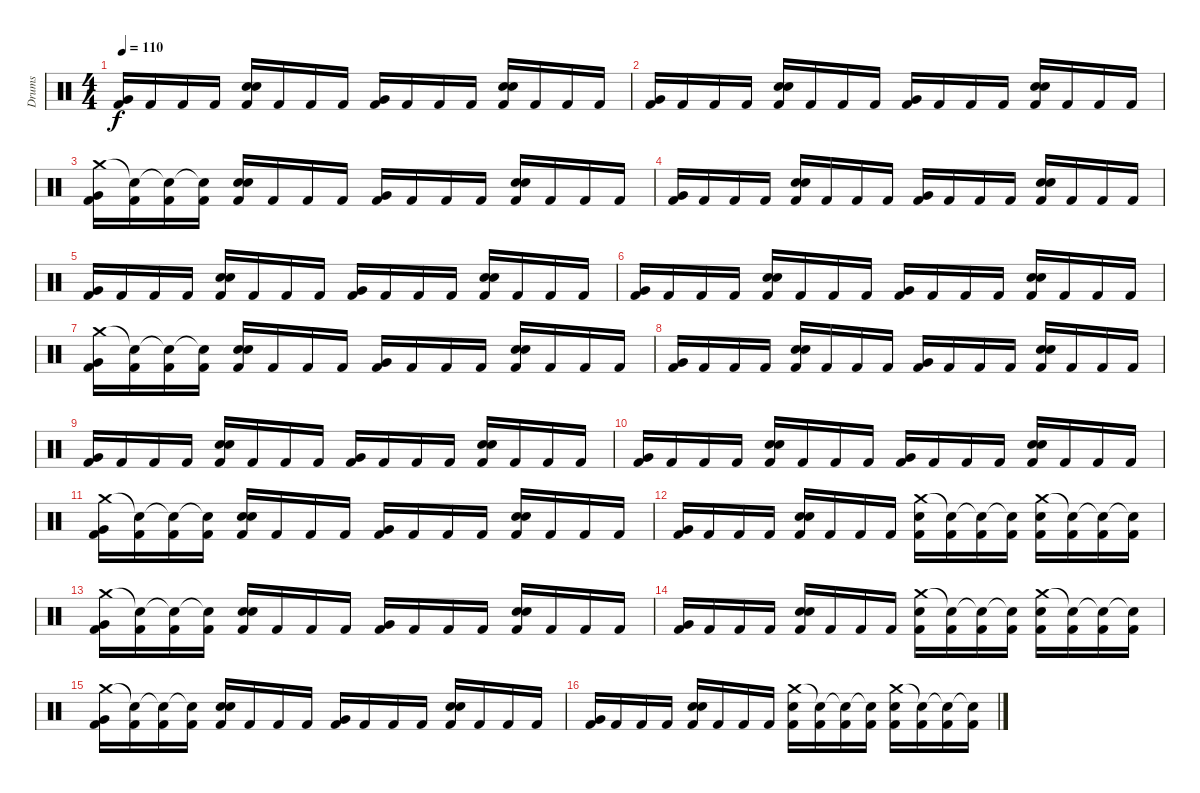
\track ("Drums" "Drums") {instrument percussion}
\staff {score}
\articulation defaults
\ts (4 4)
\tempo 110
\clef neutral
\ks c
("Very Low Tom (hit)" "Kick (hit) 2").16{dy f} "Kick (hit) 2".16 "Kick (hit) 2".16 "Kick (hit) 2".16 ("Electric Snare (hit)" "Electric Snare (hit)" "Kick (hit) 2").16 "Kick (hit) 2".16 "Kick (hit) 2".16 "Kick (hit) 2".16 ("Very Low Tom (hit)" "Kick (hit) 2").16 "Kick (hit) 2".16 "Kick (hit) 2".16 "Kick (hit) 2".16 ("Electric Snare (hit)" "Electric Snare (hit)" "Kick (hit) 2").16 "Kick (hit) 2".16 "Kick (hit) 2".16 "Kick (hit) 2".16 |
("Very Low Tom (hit)" "Kick (hit) 2").16 "Kick (hit) 2".16 "Kick (hit) 2".16 "Kick (hit) 2".16 ("Electric Snare (hit)" "Electric Snare (hit)" "Kick (hit) 2").16 "Kick (hit) 2".16 "Kick (hit) 2".16 "Kick (hit) 2".16 ("Very Low Tom (hit)" "Kick (hit) 2").16 "Kick (hit) 2".16 "Kick (hit) 2".16 "Kick (hit) 2".16 ("Electric Snare (hit)" "Electric Snare (hit)" "Kick (hit) 2").16 "Kick (hit) 2".16 "Kick (hit) 2".16 "Kick (hit) 2".16 |
("Crash medium (hit)" "Very Low Tom (hit)" "Kick (hit) 2").16 ("Snare (hit)"{t} "Kick (hit) 2").16 ("Snare (hit)"{t} "Kick (hit) 2").16 ("Snare (hit)"{t} "Kick (hit) 2").16 ("Electric Snare (hit)" "Electric Snare (hit)" "Kick (hit) 2").16 "Kick (hit) 2".16 "Kick (hit) 2".16 "Kick (hit) 2".16 ("Very Low Tom (hit)" "Kick (hit) 2").16 "Kick (hit) 2".16 "Kick (hit) 2".16 "Kick (hit) 2".16 ("Electric Snare (hit)" "Electric Snare (hit)" "Kick (hit) 2").16 "Kick (hit) 2".16 "Kick (hit) 2".16 "Kick (hit) 2".16 |
("Very Low Tom (hit)" "Kick (hit) 2").16 "Kick (hit) 2".16 "Kick (hit) 2".16 "Kick (hit) 2".16 ("Electric Snare (hit)" "Electric Snare (hit)" "Kick (hit) 2").16 "Kick (hit) 2".16 "Kick (hit) 2".16 "Kick (hit) 2".16 ("Very Low Tom (hit)" "Kick (hit) 2").16 "Kick (hit) 2".16 "Kick (hit) 2".16 "Kick (hit) 2".16 ("Electric Snare (hit)" "Electric Snare (hit)" "Kick (hit) 2").16 "Kick (hit) 2".16 "Kick (hit) 2".16 "Kick (hit) 2".16 |
("Very Low Tom (hit)" "Kick (hit) 2").16 "Kick (hit) 2".16 "Kick (hit) 2".16 "Kick (hit) 2".16 ("Electric Snare (hit)" "Electric Snare (hit)" "Kick (hit) 2").16 "Kick (hit) 2".16 "Kick (hit) 2".16 "Kick (hit) 2".16 ("Very Low Tom (hit)" "Kick (hit) 2").16 "Kick (hit) 2".16 "Kick (hit) 2".16 "Kick (hit) 2".16 ("Electric Snare (hit)" "Electric Snare (hit)" "Kick (hit) 2").16 "Kick (hit) 2".16 "Kick (hit) 2".16 "Kick (hit) 2".16 |
("Very Low Tom (hit)" "Kick (hit) 2").16 "Kick (hit) 2".16 "Kick (hit) 2".16 "Kick (hit) 2".16 ("Electric Snare (hit)" "Electric Snare (hit)" "Kick (hit) 2").16 "Kick (hit) 2".16 "Kick (hit) 2".16 "Kick (hit) 2".16 ("Very Low Tom (hit)" "Kick (hit) 2").16 "Kick (hit) 2".16 "Kick (hit) 2".16 "Kick (hit) 2".16 ("Electric Snare (hit)" "Electric Snare (hit)" "Kick (hit) 2").16 "Kick (hit) 2".16 "Kick (hit) 2".16 "Kick (hit) 2".16 |
("Crash medium (hit)" "Very Low Tom (hit)" "Kick (hit) 2").16 ("Snare (hit)"{t} "Kick (hit) 2").16 ("Snare (hit)"{t} "Kick (hit) 2").16 ("Snare (hit)"{t} "Kick (hit) 2").16 ("Electric Snare (hit)" "Electric Snare (hit)" "Kick (hit) 2").16 "Kick (hit) 2".16 "Kick (hit) 2".16 "Kick (hit) 2".16 ("Very Low Tom (hit)" "Kick (hit) 2").16 "Kick (hit) 2".16 "Kick (hit) 2".16 "Kick (hit) 2".16 ("Electric Snare (hit)" "Electric Snare (hit)" "Kick (hit) 2").16 "Kick (hit) 2".16 "Kick (hit) 2".16 "Kick (hit) 2".16 |
("Very Low Tom (hit)" "Kick (hit) 2").16 "Kick (hit) 2".16 "Kick (hit) 2".16 "Kick (hit) 2".16 ("Electric Snare (hit)" "Electric Snare (hit)" "Kick (hit) 2").16 "Kick (hit) 2".16 "Kick (hit) 2".16 "Kick (hit) 2".16 ("Very Low Tom (hit)" "Kick (hit) 2").16 "Kick (hit) 2".16 "Kick (hit) 2".16 "Kick (hit) 2".16 ("Electric Snare (hit)" "Electric Snare (hit)" "Kick (hit) 2").16 "Kick (hit) 2".16 "Kick (hit) 2".16 "Kick (hit) 2".16 |
("Very Low Tom (hit)" "Kick (hit) 2").16 "Kick (hit) 2".16 "Kick (hit) 2".16 "Kick (hit) 2".16 ("Electric Snare (hit)" "Electric Snare (hit)" "Kick (hit) 2").16 "Kick (hit) 2".16 "Kick (hit) 2".16 "Kick (hit) 2".16 ("Very Low Tom (hit)" "Kick (hit) 2").16 "Kick (hit) 2".16 "Kick (hit) 2".16 "Kick (hit) 2".16 ("Electric Snare (hit)" "Electric Snare (hit)" "Kick (hit) 2").16 "Kick (hit) 2".16 "Kick (hit) 2".16 "Kick (hit) 2".16 |
("Very Low Tom (hit)" "Kick (hit) 2").16 "Kick (hit) 2".16 "Kick (hit) 2".16 "Kick (hit) 2".16 ("Electric Snare (hit)" "Electric Snare (hit)" "Kick (hit) 2").16 "Kick (hit) 2".16 "Kick (hit) 2".16 "Kick (hit) 2".16 ("Very Low Tom (hit)" "Kick (hit) 2").16 "Kick (hit) 2".16 "Kick (hit) 2".16 "Kick (hit) 2".16 ("Electric Snare (hit)" "Electric Snare (hit)" "Kick (hit) 2").16 "Kick (hit) 2".16 "Kick (hit) 2".16 "Kick (hit) 2".16 |
("Crash medium (hit)" "Very Low Tom (hit)" "Kick (hit) 2").16 ("Snare (hit)"{t} "Kick (hit) 2").16 ("Snare (hit)"{t} "Kick (hit) 2").16 ("Snare (hit)"{t} "Kick (hit) 2").16 ("Electric Snare (hit)" "Electric Snare (hit)" "Kick (hit) 2").16 "Kick (hit) 2".16 "Kick (hit) 2".16 "Kick (hit) 2".16 ("Very Low Tom (hit)" "Kick (hit) 2").16 "Kick (hit) 2".16 "Kick (hit) 2".16 "Kick (hit) 2".16 ("Electric Snare (hit)" "Electric Snare (hit)" "Kick (hit) 2").16 "Kick (hit) 2".16 "Kick (hit) 2".16 "Kick (hit) 2".16 |
("Very Low Tom (hit)" "Kick (hit) 2").16 "Kick (hit) 2".16 "Kick (hit) 2".16 "Kick (hit) 2".16 ("Electric Snare (hit)" "Electric Snare (hit)" "Kick (hit) 2").16 "Kick (hit) 2".16 "Kick (hit) 2".16 "Kick (hit) 2".16 ("Crash medium (hit)" "Electric Snare (hit)" "Kick (hit) 2").16 ("Snare (hit)"{t} "Kick (hit) 2").16 ("Snare (hit)"{t} "Kick (hit) 2").16 ("Snare (hit)"{t} "Kick (hit) 2").16 ("Crash medium (hit)" "Electric Snare (hit)" "Kick (hit) 2").16 ("Snare (hit)"{t} "Kick (hit) 2").16 ("Snare (hit)"{t} "Kick (hit) 2").16 ("Snare (hit)"{t} "Kick (hit) 2").16 |
("Crash medium (hit)" "Very Low Tom (hit)" "Kick (hit) 2").16 ("Snare (hit)"{t} "Kick (hit) 2").16 ("Snare (hit)"{t} "Kick (hit) 2").16 ("Snare (hit)"{t} "Kick (hit) 2").16 ("Electric Snare (hit)" "Electric Snare (hit)" "Kick (hit) 2").16 "Kick (hit) 2".16 "Kick (hit) 2".16 "Kick (hit) 2".16 ("Very Low Tom (hit)" "Kick (hit) 2").16 "Kick (hit) 2".16 "Kick (hit) 2".16 "Kick (hit) 2".16 ("Electric Snare (hit)" "Electric Snare (hit)" "Kick (hit) 2").16 "Kick (hit) 2".16 "Kick (hit) 2".16 "Kick (hit) 2".16 |
("Very Low Tom (hit)" "Kick (hit) 2").16 "Kick (hit) 2".16 "Kick (hit) 2".16 "Kick (hit) 2".16 ("Electric Snare (hit)" "Electric Snare (hit)" "Kick (hit) 2").16 "Kick (hit) 2".16 "Kick (hit) 2".16 "Kick (hit) 2".16 ("Crash medium (hit)" "Electric Snare (hit)" "Kick (hit) 2").16 ("Snare (hit)"{t} "Kick (hit) 2").16 ("Snare (hit)"{t} "Kick (hit) 2").16 ("Snare (hit)"{t} "Kick (hit) 2").16 ("Crash medium (hit)" "Electric Snare (hit)" "Kick (hit) 2").16 ("Snare (hit)"{t} "Kick (hit) 2").16 ("Snare (hit)"{t} "Kick (hit) 2").16 ("Snare (hit)"{t} "Kick (hit) 2").16 |
("Crash medium (hit)" "Very Low Tom (hit)" "Kick (hit) 2").16 ("Snare (hit)"{t} "Kick (hit) 2").16 ("Snare (hit)"{t} "Kick (hit) 2").16 ("Snare (hit)"{t} "Kick (hit) 2").16 ("Electric Snare (hit)" "Electric Snare (hit)" "Kick (hit) 2").16 "Kick (hit) 2".16 "Kick (hit) 2".16 "Kick (hit) 2".16 ("Very Low Tom (hit)" "Kick (hit) 2").16 "Kick (hit) 2".16 "Kick (hit) 2".16 "Kick (hit) 2".16 ("Electric Snare (hit)" "Electric Snare (hit)" "Kick (hit) 2").16 "Kick (hit) 2".16 "Kick (hit) 2".16 "Kick (hit) 2".16 |
("Very Low Tom (hit)" "Kick (hit) 2").16 "Kick (hit) 2".16 "Kick (hit) 2".16 "Kick (hit) 2".16 ("Electric Snare (hit)" "Electric Snare (hit)" "Kick (hit) 2").16 "Kick (hit) 2".16 "Kick (hit) 2".16 "Kick (hit) 2".16 ("Crash medium (hit)" "Electric Snare (hit)" "Kick (hit) 2").16 ("Snare (hit)"{t} "Kick (hit) 2").16 ("Snare (hit)"{t} "Kick (hit) 2").16 ("Snare (hit)"{t} "Kick (hit) 2").16 ("Crash medium (hit)" "Electric Snare (hit)" "Kick (hit) 2").16 ("Snare (hit)"{t} "Kick (hit) 2").16 ("Snare (hit)"{t} "Kick (hit) 2").16 ("Snare (hit)"{t} "Kick (hit) 2").16
